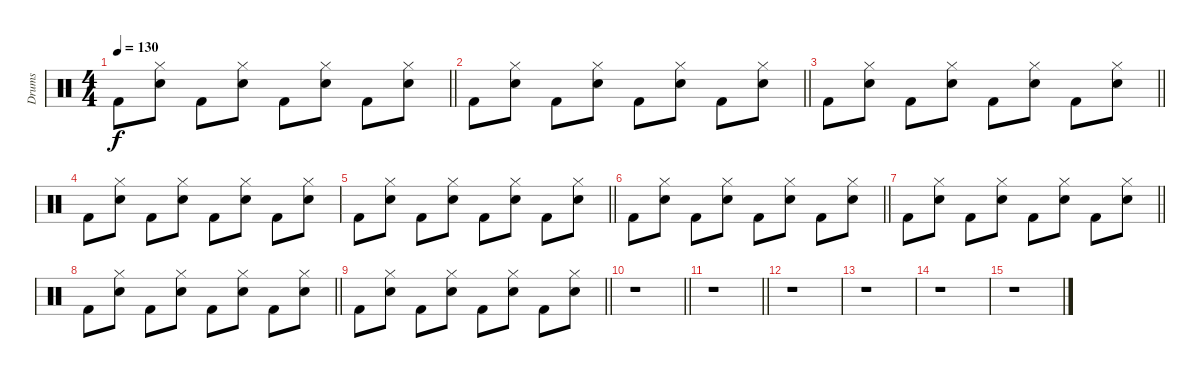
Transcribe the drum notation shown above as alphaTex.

\track ("Drums" "Drums") {instrument percussion}
\staff {score}
\articulation defaults
\ts (4 4)
\tempo 130
\clef neutral
\barLineRight lightlight
\ks c "Kick (hit) 2".8{dy f}
("Electric Snare (hit)" "Hi-Hat (closed)").8 "Kick (hit) 2".8 ("Electric Snare (hit)" "Hi-Hat (closed)").8 "Kick (hit) 2".8 ("Electric Snare (hit)" "Hi-Hat (closed)").8 "Kick (hit) 2".8 ("Electric Snare (hit)" "Hi-Hat (closed)").8 |
\barLineRight lightlight "Kick (hit) 2".8
("Electric Snare (hit)" "Hi-Hat (closed)").8 "Kick (hit) 2".8 ("Electric Snare (hit)" "Hi-Hat (closed)").8 "Kick (hit) 2".8 ("Electric Snare (hit)" "Hi-Hat (closed)").8 "Kick (hit) 2".8 ("Electric Snare (hit)" "Hi-Hat (closed)").8 |
\barLineRight lightlight "Kick (hit) 2".8
("Electric Snare (hit)" "Hi-Hat (closed)").8 "Kick (hit) 2".8 ("Electric Snare (hit)" "Hi-Hat (closed)").8 "Kick (hit) 2".8 ("Electric Snare (hit)" "Hi-Hat (closed)").8 "Kick (hit) 2".8 ("Electric Snare (hit)" "Hi-Hat (closed)").8 |
"Kick (hit) 2".8 ("Electric Snare (hit)" "Hi-Hat (closed)").8 "Kick (hit) 2".8 ("Electric Snare (hit)" "Hi-Hat (closed)").8 "Kick (hit) 2".8 ("Electric Snare (hit)" "Hi-Hat (closed)").8 "Kick (hit) 2".8 ("Electric Snare (hit)" "Hi-Hat (closed)").8 |
\barLineRight lightlight "Kick (hit) 2".8
("Electric Snare (hit)" "Hi-Hat (closed)").8 "Kick (hit) 2".8 ("Electric Snare (hit)" "Hi-Hat (closed)").8 "Kick (hit) 2".8 ("Electric Snare (hit)" "Hi-Hat (closed)").8 "Kick (hit) 2".8 ("Electric Snare (hit)" "Hi-Hat (closed)").8 |
\barLineRight lightlight "Kick (hit) 2".8
("Electric Snare (hit)" "Hi-Hat (closed)").8 "Kick (hit) 2".8 ("Electric Snare (hit)" "Hi-Hat (closed)").8 "Kick (hit) 2".8 ("Electric Snare (hit)" "Hi-Hat (closed)").8 "Kick (hit) 2".8 ("Electric Snare (hit)" "Hi-Hat (closed)").8 |
\barLineRight lightlight "Kick (hit) 2".8
("Electric Snare (hit)" "Hi-Hat (closed)").8 "Kick (hit) 2".8 ("Electric Snare (hit)" "Hi-Hat (closed)").8 "Kick (hit) 2".8 ("Electric Snare (hit)" "Hi-Hat (closed)").8 "Kick (hit) 2".8 ("Electric Snare (hit)" "Hi-Hat (closed)").8 |
\barLineRight lightlight "Kick (hit) 2".8
("Electric Snare (hit)" "Hi-Hat (closed)").8 "Kick (hit) 2".8 ("Electric Snare (hit)" "Hi-Hat (closed)").8 "Kick (hit) 2".8 ("Electric Snare (hit)" "Hi-Hat (closed)").8 "Kick (hit) 2".8 ("Electric Snare (hit)" "Hi-Hat (closed)").8 |
\barLineRight lightlight "Kick (hit) 2".8
("Electric Snare (hit)" "Hi-Hat (closed)").8 "Kick (hit) 2".8 ("Electric Snare (hit)" "Hi-Hat (closed)").8 "Kick (hit) 2".8 ("Electric Snare (hit)" "Hi-Hat (closed)").8 "Kick (hit) 2".8 ("Electric Snare (hit)" "Hi-Hat (closed)").8 |
\barLineRight lightlight
r.1 |
\barLineRight lightlight
r.1 |
r.1 |
r.1 |
r.1 |
r.1
